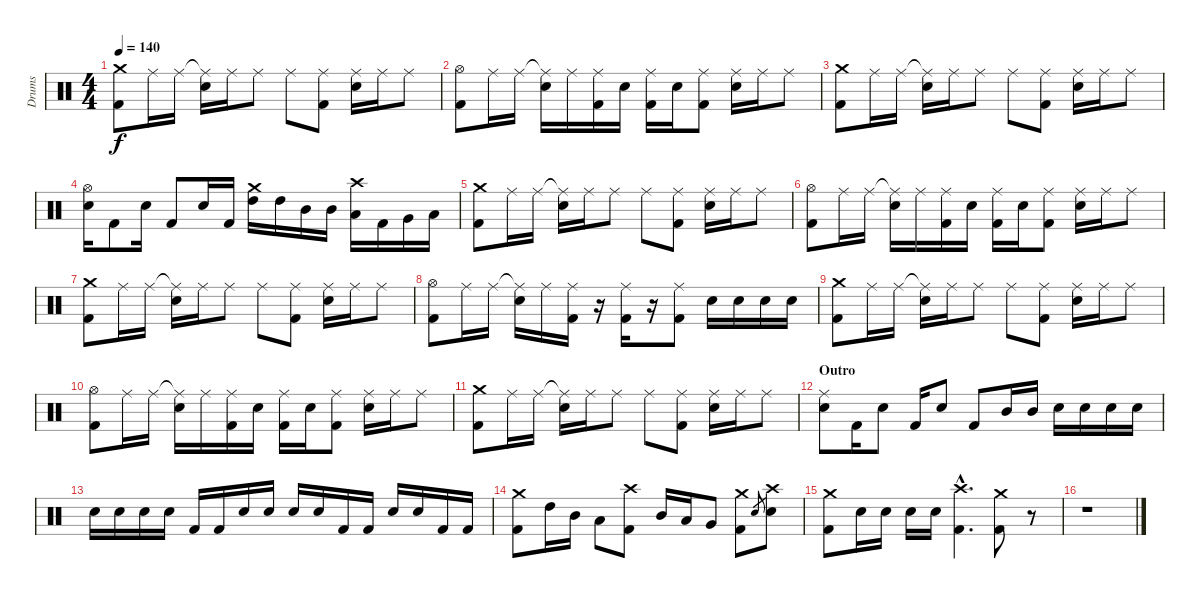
\track ("Drums" "Drums") {instrument percussion}
\staff {score}
\articulation defaults
\ts (4 4)
\tempo 140
\clef neutral
\ks c
("Crash medium (hit)" "Kick (hit) 2").8{dy f} "Ride (middle)".16 "Ride (middle)".16 ("Ride (middle)"{t} "Snare (hit) 2").16 "Ride (middle)".16 "Ride (middle)".8 "Ride (middle)".8 ("Ride (middle)" "Kick (hit) 2").8 ("Ride (middle)" "Snare (hit) 2").16 "Ride (middle)".16 "Ride (middle)".8 |
("Hi-Hat (open)" "Kick (hit) 2").8 "Ride (middle)".16 "Ride (middle)".16 ("Ride (middle)"{t} "Snare (hit) 2").16 "Ride (middle)".16 ("Ride (middle)" "Kick (hit) 2").16 "Snare (hit) 2".16 ("Ride (middle)" "Kick (hit) 2").16 "Snare (hit) 2".16 ("Ride (middle)" "Kick (hit) 2").8 ("Ride (middle)" "Snare (hit) 2").16 "Ride (middle)".16 "Ride (middle)".8 |
("Crash medium (hit)" "Kick (hit) 2").8 "Ride (middle)".16 "Ride (middle)".16 ("Ride (middle)"{t} "Snare (hit) 2").16 "Ride (middle)".16 "Ride (middle)".8 "Ride (middle)".8 ("Ride (middle)" "Kick (hit) 2").8 ("Ride (middle)" "Snare (hit) 2").16 "Ride (middle)".16 "Ride (middle)".8 |
("Hi-Hat (open)" "Snare (hit) 2").16 "Kick (hit) 2".8 "Snare (hit) 2".16 "Kick (hit) 2".8 "Snare (hit) 2".16 "Kick (hit) 2".16 ("Crash medium (hit)" "High Tom (hit)").16 "High Tom (hit)".16 "Mid Tom (hit)".16 "Mid Tom (hit)".16 ("Crash high (hit)" "Low Tom (hit)").16 "Kick (hit) 2".16 "Very Low Tom (hit)".16 "Low Floor Tom (hit)".16 |
("Crash medium (hit)" "Kick (hit) 2").8 "Ride (middle)".16 "Ride (middle)".16 ("Ride (middle)"{t} "Snare (hit) 2").16 "Ride (middle)".16 "Ride (middle)".8 "Ride (middle)".8 ("Ride (middle)" "Kick (hit) 2").8 ("Ride (middle)" "Snare (hit) 2").16 "Ride (middle)".16 "Ride (middle)".8 |
("Hi-Hat (open)" "Kick (hit) 2").8 "Ride (middle)".16 "Ride (middle)".16 ("Ride (middle)"{t} "Snare (hit) 2").16 "Ride (middle)".16 ("Ride (middle)" "Kick (hit) 2").16 "Snare (hit) 2".16 ("Ride (middle)" "Kick (hit) 2").16 "Snare (hit) 2".16 ("Ride (middle)" "Kick (hit) 2").8 ("Ride (middle)" "Snare (hit) 2").16 "Ride (middle)".16 "Ride (middle)".8 |
("Crash medium (hit)" "Kick (hit) 2").8 "Ride (middle)".16 "Ride (middle)".16 ("Ride (middle)"{t} "Snare (hit) 2").16 "Ride (middle)".16 "Ride (middle)".8 "Ride (middle)".8 ("Ride (middle)" "Kick (hit) 2").8 ("Ride (middle)" "Snare (hit) 2").16 "Ride (middle)".16 "Ride (middle)".8 |
("Hi-Hat (open)" "Kick (hit) 2").8 "Ride (middle)".16 "Ride (middle)".16 ("Ride (middle)"{t} "Snare (hit) 2").16 "Ride (middle)".16 ("Ride (middle)" "Kick (hit) 2").16 r.16 ("Ride (middle)" "Kick (hit) 2").16 r.16 ("Ride (middle)" "Kick (hit) 2").8 "Snare (hit) 2".16 "Snare (hit) 2".16 "Snare (hit) 2".16 "Snare (hit) 2".16 |
("Crash medium (hit)" "Kick (hit) 2").8 "Ride (middle)".16 "Ride (middle)".16 ("Ride (middle)"{t} "Snare (hit) 2").16 "Ride (middle)".16 "Ride (middle)".8 "Ride (middle)".8 ("Ride (middle)" "Kick (hit) 2").8 ("Ride (middle)" "Snare (hit) 2").16 "Ride (middle)".16 "Ride (middle)".8 |
("Hi-Hat (open)" "Kick (hit) 2").8 "Ride (middle)".16 "Ride (middle)".16 ("Ride (middle)"{t} "Snare (hit) 2").16 "Ride (middle)".16 ("Ride (middle)" "Kick (hit) 2").16 "Snare (hit) 2".16 ("Ride (middle)" "Kick (hit) 2").16 "Snare (hit) 2".16 ("Ride (middle)" "Kick (hit) 2").8 ("Ride (middle)" "Snare (hit) 2").16 "Ride (middle)".16 "Ride (middle)".8 |
("Crash medium (hit)" "Kick (hit) 2").8 "Ride (middle)".16 "Ride (middle)".16 ("Ride (middle)"{t} "Snare (hit) 2").16 "Ride (middle)".16 "Ride (middle)".8 "Ride (middle)".8 ("Ride (middle)" "Kick (hit) 2").8 ("Ride (middle)" "Snare (hit) 2").16 "Ride (middle)".16 "Ride (middle)".8 |
\section ("" "Outro")
("Ride (middle)" "Snare (hit) 2").8 "Kick (hit) 2".16 "Snare (hit) 2".8 "Kick (hit) 2".16 "Snare (hit) 2".8 "Kick (hit) 2".8 "Mid Tom (hit)".16 "Mid Tom (hit)".16 "Snare (hit) 2".16 "Snare (hit) 2".16 "Snare (hit) 2".16 "Snare (hit) 2".16 |
"Snare (hit) 2".16 "Snare (hit) 2".16 "Snare (hit) 2".16 "Snare (hit) 2".16 "Kick (hit) 2".16 "Kick (hit) 2".16 "Snare (hit) 2".16 "Snare (hit) 2".16 "Snare (hit) 2".16 "Snare (hit) 2".16 "Kick (hit) 2".16 "Kick (hit) 2".16 "Snare (hit) 2".16 "Snare (hit) 2".16 "Kick (hit) 2".16 "Kick (hit) 2".16 |
("Crash medium (hit)" "Kick (hit) 2").8 "High Tom (hit)".16 "Mid Tom (hit)".16 "Low Tom (hit)".8 ("Crash high (hit)" "Kick (hit) 2").8 "Mid Tom (hit)".16 "Low Tom (hit)".16 "Very Low Tom (hit)".8 ("Crash medium (hit)" "Kick (hit) 2").8 "Snare (hit) 2".8{gr} ("Crash high (hit)" "Snare (hit) 2").8 |
("Crash medium (hit)" "Kick (hit) 2").8 "Snare (hit) 2".16 "Snare (hit) 2".16 "Snare (hit) 2".16 "Snare (hit) 2".16 ("Crash high (hit)"{hac} "Kick (hit) 2"{hac}).4{d} ("Crash medium (hit)" "Kick (hit) 2").8 r.8 |
r.1
